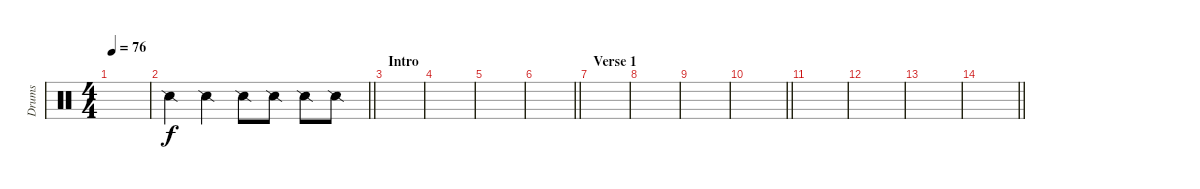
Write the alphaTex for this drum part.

\track ("Drums" "Drums") {instrument percussion}
\staff {score}
\articulation defaults
\ts (4 4)
\tempo 76
\clef neutral
\ks c
|
\barLineRight lightlight "Snare (side stick) 2".4 "Snare (side stick) 2".4 "Snare (side stick) 2".8 "Snare (side stick) 2".8 "Snare (side stick) 2".8 "Snare (side stick) 2".8
|
\section ("" "Intro")
|
|
|
\barLineRight lightlight
|
\section ("" "Verse 1")
|
|
|
\barLineRight lightlight
|
|
|
|
\barLineRight lightlight
